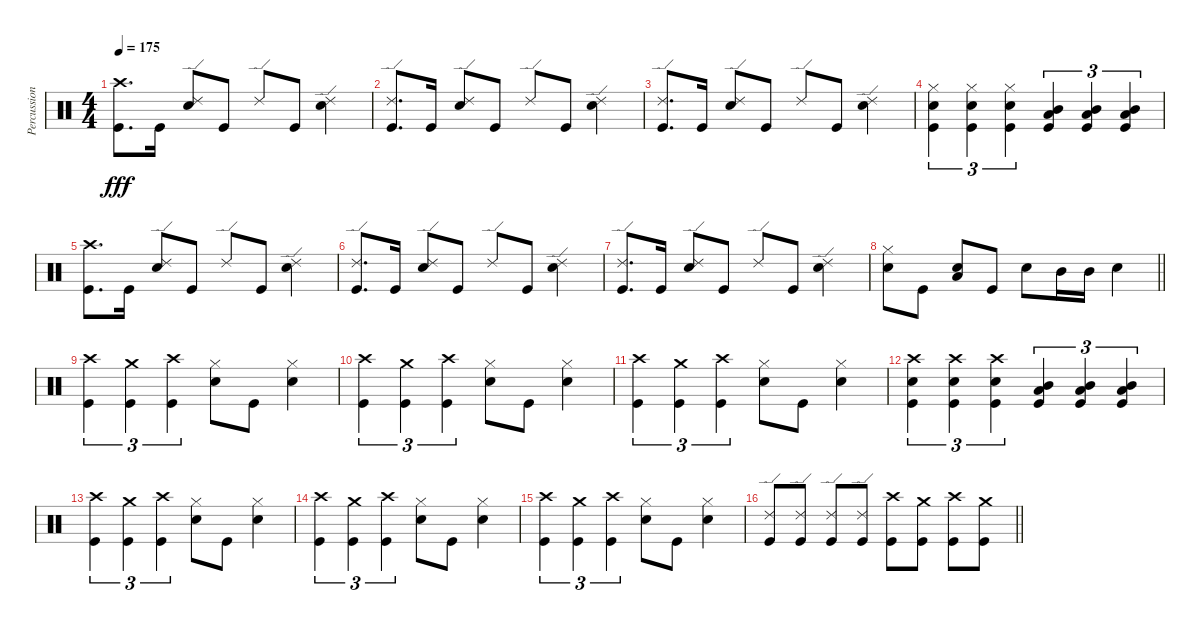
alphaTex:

\track ("Percussion" "Percussion") {instrument percussion}
\staff {score}
\articulation defaults
\ts (4 4)
\tempo 175
\clef neutral
\ks c
("Crash high (hit)" "Kick (hit)").8{d dy fff} "Kick (hit)".16 ("Ride (edge) 2" "Snare (hit) 2").8 "Kick (hit)".8 "Ride (edge) 2".8 "Kick (hit)".8 ("Ride (edge) 2" "Snare (hit) 2").4 |
("Ride (edge) 2" "Kick (hit)").8{d} "Kick (hit)".16 ("Ride (edge) 2" "Snare (hit) 2").8 "Kick (hit)".8 "Ride (edge) 2".8 "Kick (hit)".8 ("Ride (edge) 2" "Snare (hit) 2").4 |
("Ride (edge) 2" "Kick (hit)").8{d} "Kick (hit)".16 ("Ride (edge) 2" "Snare (hit) 2").8 "Kick (hit)".8 "Ride (edge) 2".8 "Kick (hit)".8 ("Ride (edge) 2" "Snare (hit) 2").4 |
("Hi-Hat (closed)" "Snare (hit) 2" "Kick (hit)").4{tu (3 2)} ("Hi-Hat (closed)" "Snare (hit) 2" "Kick (hit)").4{tu (3 2)} ("Hi-Hat (closed)" "Snare (hit) 2" "Kick (hit)").4{tu (3 2)} ("Mid Tom (hit)" "Low Tom (hit)" "Kick (hit)").4{tu (3 2)} ("Mid Tom (hit)" "Low Tom (hit)" "Kick (hit)").4{tu (3 2)} ("Mid Tom (hit)" "Low Tom (hit)" "Kick (hit)").4{tu (3 2)} |
("Crash high (hit)" "Kick (hit)").8{d} "Kick (hit)".16 ("Ride (edge) 2" "Snare (hit) 2").8 "Kick (hit)".8 "Ride (edge) 2".8 "Kick (hit)".8 ("Ride (edge) 2" "Snare (hit) 2").4 |
("Ride (edge) 2" "Kick (hit)").8{d} "Kick (hit)".16 ("Ride (edge) 2" "Snare (hit) 2").8 "Kick (hit)".8 "Ride (edge) 2".8 "Kick (hit)".8 ("Ride (edge) 2" "Snare (hit) 2").4 |
("Ride (edge) 2" "Kick (hit)").8{d} "Kick (hit)".16 ("Ride (edge) 2" "Snare (hit) 2").8 "Kick (hit)".8 "Ride (edge) 2".8 "Kick (hit)".8 ("Ride (edge) 2" "Snare (hit) 2").4 |
\barLineRight lightlight
("Snare (hit) 2" "Hi-Hat (closed)").8 "Kick (hit)".8 ("Snare (hit) 2" "Low Tom (hit)").8 "Kick (hit)".8 "Snare (hit) 2".8 "Mid Tom (hit)".16 "Mid Tom (hit)".16 "Snare (hit) 2".4 |
("Crash high (hit)" "Kick (hit)").4{tu (3 2)} ("Crash medium (hit)" "Kick (hit)").4{tu (3 2)} ("Crash high (hit)" "Kick (hit)").4{tu (3 2)} ("Snare (hit) 2" "Hi-Hat (closed)").8 "Kick (hit)".8 ("Snare (hit) 2" "Hi-Hat (closed)").4 |
("Crash high (hit)" "Kick (hit)").4{tu (3 2)} ("Crash medium (hit)" "Kick (hit)").4{tu (3 2)} ("Crash high (hit)" "Kick (hit)").4{tu (3 2)} ("Snare (hit) 2" "Hi-Hat (closed)").8 "Kick (hit)".8 ("Snare (hit) 2" "Hi-Hat (closed)").4 |
("Crash high (hit)" "Kick (hit)").4{tu (3 2)} ("Crash medium (hit)" "Kick (hit)").4{tu (3 2)} ("Crash high (hit)" "Kick (hit)").4{tu (3 2)} ("Snare (hit) 2" "Hi-Hat (closed)").8 "Kick (hit)".8 ("Snare (hit) 2" "Hi-Hat (closed)").4 |
("Crash high (hit)" "Snare (hit) 2" "Kick (hit)").4{tu (3 2)} ("Crash high (hit)" "Snare (hit) 2" "Kick (hit)").4{tu (3 2)} ("Crash high (hit)" "Snare (hit) 2" "Kick (hit)").4{tu (3 2)} ("Mid Tom (hit)" "Low Tom (hit)" "Kick (hit)").4{tu (3 2)} ("Mid Tom (hit)" "Low Tom (hit)" "Kick (hit)").4{tu (3 2)} ("Mid Tom (hit)" "Low Tom (hit)" "Kick (hit)").4{tu (3 2)} |
("Crash high (hit)" "Kick (hit)").4{tu (3 2)} ("Crash medium (hit)" "Kick (hit)").4{tu (3 2)} ("Crash high (hit)" "Kick (hit)").4{tu (3 2)} ("Snare (hit) 2" "Hi-Hat (closed)").8 "Kick (hit)".8 ("Snare (hit) 2" "Hi-Hat (closed)").4 |
("Crash high (hit)" "Kick (hit)").4{tu (3 2)} ("Crash medium (hit)" "Kick (hit)").4{tu (3 2)} ("Crash high (hit)" "Kick (hit)").4{tu (3 2)} ("Snare (hit) 2" "Hi-Hat (closed)").8 "Kick (hit)".8 ("Snare (hit) 2" "Hi-Hat (closed)").4 |
("Crash high (hit)" "Kick (hit)").4{tu (3 2)} ("Crash medium (hit)" "Kick (hit)").4{tu (3 2)} ("Crash high (hit)" "Kick (hit)").4{tu (3 2)} ("Snare (hit) 2" "Hi-Hat (closed)").8 "Kick (hit)".8 ("Snare (hit) 2" "Hi-Hat (closed)").4 |
\barLineRight lightlight
("Ride (edge) 2" "Kick (hit)").8 ("Ride (edge) 2" "Kick (hit)").8 ("Ride (edge) 2" "Kick (hit)").8 ("Ride (edge) 2" "Kick (hit)").8 ("Crash high (hit)" "Kick (hit)").8 ("Crash medium (hit)" "Kick (hit)").8 ("Crash high (hit)" "Kick (hit)").8 ("Crash medium (hit)" "Kick (hit)").8
